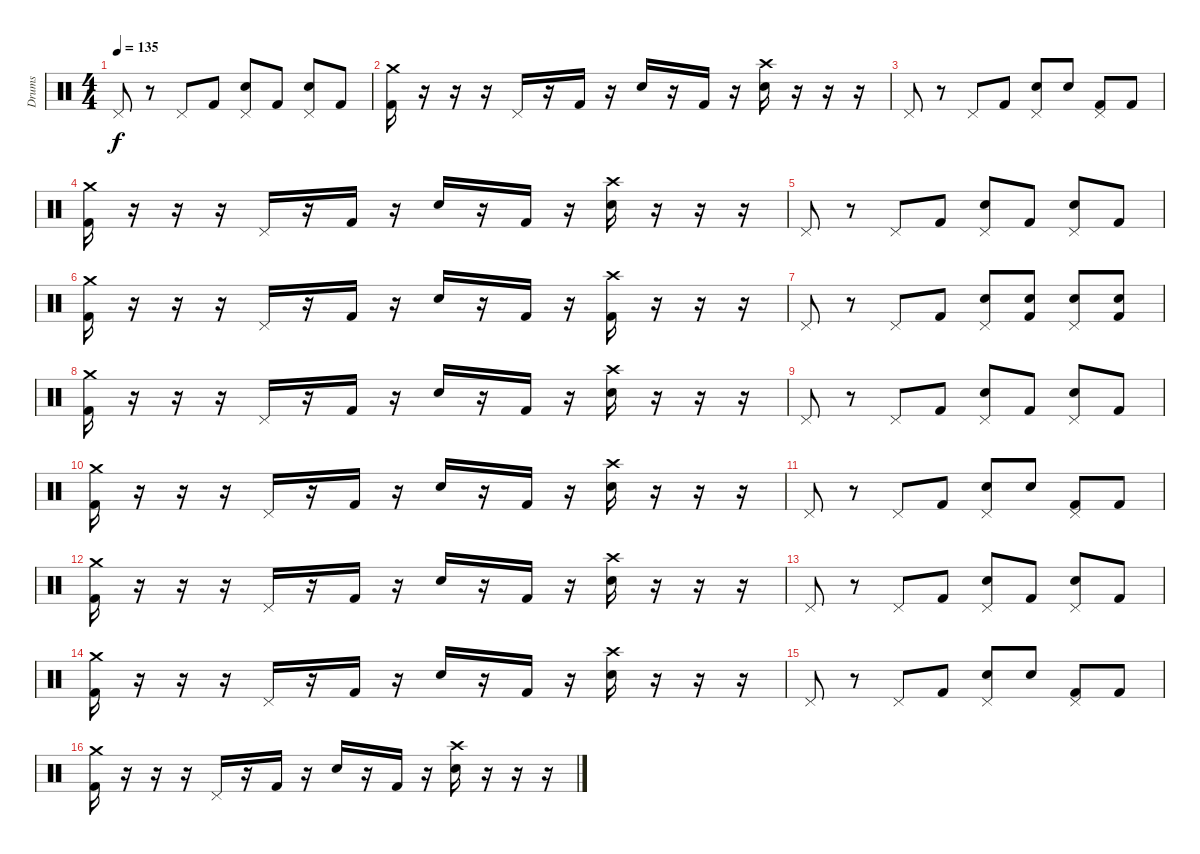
\track ("Drums" "Drums") {instrument percussion}
\staff {score}
\articulation defaults
\ts (4 4)
\tempo 135
\clef neutral
\ks c "Pedal Hi-Hat (hit)".8{dy f}
r.8 "Pedal Hi-Hat (hit)".8 "Kick (hit) 2".8 ("Pedal Hi-Hat (hit)" "Snare (hit) 2").8 "Kick (hit) 2".8 ("Pedal Hi-Hat (hit)" "Snare (hit) 2").8 "Kick (hit) 2".8 |
("Crash medium (hit)" "Kick (hit) 2").16 r.16 r.16 r.16 "Pedal Hi-Hat (hit)".16 r.16 "Kick (hit) 2".16 r.16 "Snare (hit) 2".16 r.16 "Kick (hit) 2".16 r.16 ("Crash high (hit)" "Snare (hit) 2").16 r.16 r.16 r.16 |
"Pedal Hi-Hat (hit)".8 r.8 "Pedal Hi-Hat (hit)".8 "Kick (hit) 2".8 ("Pedal Hi-Hat (hit)" "Snare (hit) 2").8 "Snare (hit) 2".8 ("Pedal Hi-Hat (hit)" "Kick (hit) 2").8 "Kick (hit) 2".8 |
("Crash medium (hit)" "Kick (hit) 2").16 r.16 r.16 r.16 "Pedal Hi-Hat (hit)".16 r.16 "Kick (hit) 2".16 r.16 "Snare (hit) 2".16 r.16 "Kick (hit) 2".16 r.16 ("Crash high (hit)" "Snare (hit) 2").16 r.16 r.16 r.16 |
"Pedal Hi-Hat (hit)".8 r.8 "Pedal Hi-Hat (hit)".8 "Kick (hit) 2".8 ("Pedal Hi-Hat (hit)" "Snare (hit) 2").8 "Kick (hit) 2".8 ("Pedal Hi-Hat (hit)" "Snare (hit) 2").8 "Kick (hit) 2".8 |
("Crash medium (hit)" "Kick (hit) 2").16 r.16 r.16 r.16 "Pedal Hi-Hat (hit)".16 r.16 "Kick (hit) 2".16 r.16 "Snare (hit) 2".16 r.16 "Kick (hit) 2".16 r.16 ("Crash high (hit)" "Kick (hit) 2").16 r.16 r.16 r.16 |
"Pedal Hi-Hat (hit)".8 r.8 "Pedal Hi-Hat (hit)".8 "Kick (hit) 2".8 ("Pedal Hi-Hat (hit)" "Snare (hit) 2").8 ("Snare (hit) 2" "Kick (hit) 2").8 ("Pedal Hi-Hat (hit)" "Snare (hit) 2").8 ("Snare (hit) 2" "Kick (hit) 2").8 |
("Crash medium (hit)" "Kick (hit) 2").16 r.16 r.16 r.16 "Pedal Hi-Hat (hit)".16 r.16 "Kick (hit) 2".16 r.16 "Snare (hit) 2".16 r.16 "Kick (hit) 2".16 r.16 ("Crash high (hit)" "Snare (hit) 2").16 r.16 r.16 r.16 |
"Pedal Hi-Hat (hit)".8 r.8 "Pedal Hi-Hat (hit)".8 "Kick (hit) 2".8 ("Pedal Hi-Hat (hit)" "Snare (hit) 2").8 "Kick (hit) 2".8 ("Pedal Hi-Hat (hit)" "Snare (hit) 2").8 "Kick (hit) 2".8 |
("Crash medium (hit)" "Kick (hit) 2").16 r.16 r.16 r.16 "Pedal Hi-Hat (hit)".16 r.16 "Kick (hit) 2".16 r.16 "Snare (hit) 2".16 r.16 "Kick (hit) 2".16 r.16 ("Crash high (hit)" "Snare (hit) 2").16 r.16 r.16 r.16 |
"Pedal Hi-Hat (hit)".8 r.8 "Pedal Hi-Hat (hit)".8 "Kick (hit) 2".8 ("Pedal Hi-Hat (hit)" "Snare (hit) 2").8 "Snare (hit) 2".8 ("Pedal Hi-Hat (hit)" "Kick (hit) 2").8 "Kick (hit) 2".8 |
("Crash medium (hit)" "Kick (hit) 2").16 r.16 r.16 r.16 "Pedal Hi-Hat (hit)".16 r.16 "Kick (hit) 2".16 r.16 "Snare (hit) 2".16 r.16 "Kick (hit) 2".16 r.16 ("Crash high (hit)" "Snare (hit) 2").16 r.16 r.16 r.16 |
"Pedal Hi-Hat (hit)".8 r.8 "Pedal Hi-Hat (hit)".8 "Kick (hit) 2".8 ("Pedal Hi-Hat (hit)" "Snare (hit) 2").8 "Kick (hit) 2".8 ("Pedal Hi-Hat (hit)" "Snare (hit) 2").8 "Kick (hit) 2".8 |
("Crash medium (hit)" "Kick (hit) 2").16 r.16 r.16 r.16 "Pedal Hi-Hat (hit)".16 r.16 "Kick (hit) 2".16 r.16 "Snare (hit) 2".16 r.16 "Kick (hit) 2".16 r.16 ("Crash high (hit)" "Snare (hit) 2").16 r.16 r.16 r.16 |
"Pedal Hi-Hat (hit)".8 r.8 "Pedal Hi-Hat (hit)".8 "Kick (hit) 2".8 ("Pedal Hi-Hat (hit)" "Snare (hit) 2").8 "Snare (hit) 2".8 ("Pedal Hi-Hat (hit)" "Kick (hit) 2").8 "Kick (hit) 2".8 |
("Crash medium (hit)" "Kick (hit) 2").16 r.16 r.16 r.16 "Pedal Hi-Hat (hit)".16 r.16 "Kick (hit) 2".16 r.16 "Snare (hit) 2".16 r.16 "Kick (hit) 2".16 r.16 ("Crash high (hit)" "Snare (hit) 2").16 r.16 r.16 r.16
